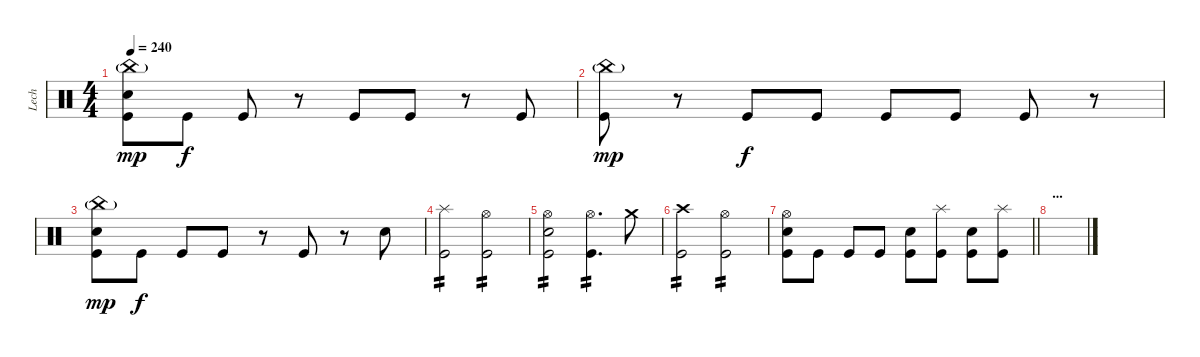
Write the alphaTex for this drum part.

\track ("Lech" "Lech") {instrument percussion}
\staff {score}
\articulation defaults
\ts (4 4)
\tempo 240
\clef neutral
\ks c
("China (hit)"{g} "Snare (hit) 2" "Kick (hit)").8{dy mp} "Kick (hit)".8{dy f} "Kick (hit)".8 r.8 "Kick (hit)".8 "Kick (hit)".8 r.8 "Kick (hit)".8 |
("China (hit)"{g} "Kick (hit)").8{dy mp} r.8 "Kick (hit)".8{dy f} "Kick (hit)".8 "Kick (hit)".8 "Kick (hit)".8 "Kick (hit)".8 r.8 |
("China (hit)"{g} "Snare (hit) 2" "Kick (hit)").8{dy mp} "Kick (hit)".8{dy f} "Kick (hit)".8 "Kick (hit)".8 r.8 "Kick (hit)".8 r.8 "Snare (hit) 2".8 |
("Splash (hit)" "Kick (hit)").2{tp 2} ("Hi-Hat (open)" "Kick (hit)").2{tp 2} |
("Hi-Hat (open)" "Snare (hit) 2" "Kick (hit)").2{tp 2} ("Hi-Hat (open)" "Kick (hit)").4{d tp 2} "Crash medium (hit)".8 |
("Crash high (hit)" "Kick (hit)").2{tp 2} ("Hi-Hat (open)" "Kick (hit)").2{tp 2} |
\barLineRight lightlight
("Hi-Hat (open)" "Snare (hit) 2" "Kick (hit)").8 "Kick (hit)".8 "Kick (hit)".8 "Kick (hit)".8 ("Snare (hit) 2" "Kick (hit)").8 ("Splash (hit)" "Kick (hit)").8 ("Snare (hit) 2" "Kick (hit)").8 ("Splash (hit)" "Kick (hit)").8 |
\section ("" "...")
